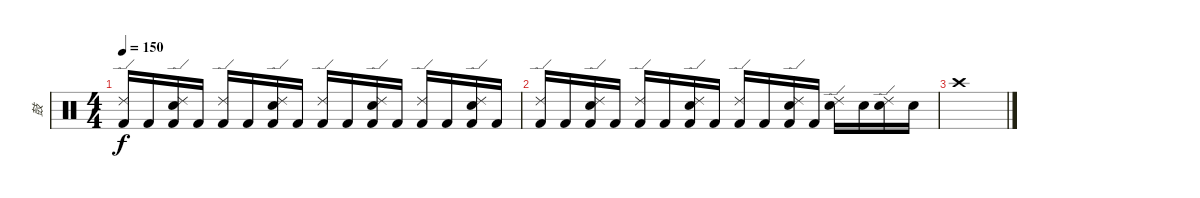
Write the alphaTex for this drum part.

\track ("鼓" "鼓") {instrument percussion}
\staff {score}
\articulation defaults
\ts (4 4)
\tempo 150
\clef neutral
\ks c
("Ride (edge) 2" "Kick (hit) 2").16{dy f} "Kick (hit) 2".16 ("Ride (edge) 2" "Kick (hit) 2" "Electric Snare (hit)").16 "Kick (hit) 2".16 ("Ride (edge) 2" "Kick (hit) 2").16 "Kick (hit) 2".16 ("Ride (edge) 2" "Kick (hit) 2" "Electric Snare (hit)").16 "Kick (hit) 2".16 ("Ride (edge) 2" "Kick (hit) 2").16 "Kick (hit) 2".16 ("Ride (edge) 2" "Kick (hit) 2" "Electric Snare (hit)").16 "Kick (hit) 2".16 ("Ride (edge) 2" "Kick (hit) 2").16 "Kick (hit) 2".16 ("Ride (edge) 2" "Kick (hit) 2" "Electric Snare (hit)").16 "Kick (hit) 2".16 |
("Ride (edge) 2" "Kick (hit) 2").16 "Kick (hit) 2".16 ("Ride (edge) 2" "Kick (hit) 2" "Electric Snare (hit)").16 "Kick (hit) 2".16 ("Ride (edge) 2" "Kick (hit) 2").16 "Kick (hit) 2".16 ("Ride (edge) 2" "Kick (hit) 2" "Electric Snare (hit)").16 "Kick (hit) 2".16 ("Ride (edge) 2" "Kick (hit) 2").16 "Kick (hit) 2".16 ("Ride (edge) 2" "Kick (hit) 2" "Electric Snare (hit)").16 "Kick (hit) 2".16 ("Ride (edge) 2" "Electric Snare (hit)").16 "Electric Snare (hit)".16 ("Ride (edge) 2" "Electric Snare (hit)").16 "Electric Snare (hit)".16 |
"Crash high (hit)".1
